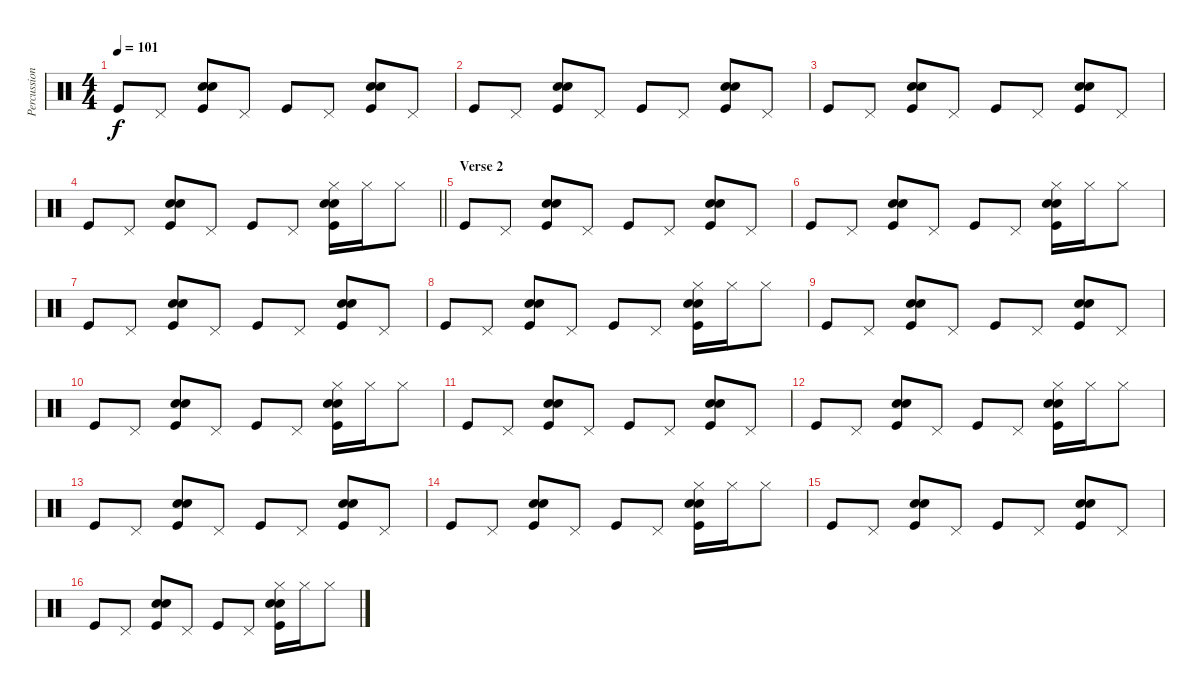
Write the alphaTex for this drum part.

\track ("Percussion" "Percussion") {instrument percussion}
\staff {score}
\articulation defaults
\ts (4 4)
\tempo 101
\clef neutral
\ks c "Kick (hit)".8{dy f} "Pedal Hi-Hat (hit)".8
("Kick (hit)" "Snare (hit) 2" "Electric Snare (hit)").8 "Pedal Hi-Hat (hit)".8 "Kick (hit)".8 "Pedal Hi-Hat (hit)".8 ("Kick (hit)" "Snare (hit) 2" "Electric Snare (hit)").8 "Pedal Hi-Hat (hit)".8 |
"Kick (hit)".8 "Pedal Hi-Hat (hit)".8 ("Kick (hit)" "Snare (hit) 2" "Electric Snare (hit)").8 "Pedal Hi-Hat (hit)".8 "Kick (hit)".8 "Pedal Hi-Hat (hit)".8 ("Kick (hit)" "Snare (hit) 2" "Electric Snare (hit)").8 "Pedal Hi-Hat (hit)".8 |
"Kick (hit)".8 "Pedal Hi-Hat (hit)".8 ("Kick (hit)" "Snare (hit) 2" "Electric Snare (hit)").8 "Pedal Hi-Hat (hit)".8 "Kick (hit)".8 "Pedal Hi-Hat (hit)".8 ("Kick (hit)" "Snare (hit) 2" "Electric Snare (hit)").8 "Pedal Hi-Hat (hit)".8 |
\barLineRight lightlight "Kick (hit)".8 "Pedal Hi-Hat (hit)".8
("Kick (hit)" "Snare (hit) 2" "Electric Snare (hit)").8 "Pedal Hi-Hat (hit)".8 "Kick (hit)".8 "Pedal Hi-Hat (hit)".8 ("Kick (hit)" "Snare (hit) 2" "Electric Snare (hit)" "Hi-Hat (closed)").16 "Hi-Hat (closed)".16 "Hi-Hat (closed)".8 |
\section ("" "Verse 2")
"Kick (hit)".8 "Pedal Hi-Hat (hit)".8 ("Kick (hit)" "Snare (hit) 2" "Electric Snare (hit)").8 "Pedal Hi-Hat (hit)".8 "Kick (hit)".8 "Pedal Hi-Hat (hit)".8 ("Kick (hit)" "Snare (hit) 2" "Electric Snare (hit)").8 "Pedal Hi-Hat (hit)".8 |
"Kick (hit)".8 "Pedal Hi-Hat (hit)".8 ("Kick (hit)" "Snare (hit) 2" "Electric Snare (hit)").8 "Pedal Hi-Hat (hit)".8 "Kick (hit)".8 "Pedal Hi-Hat (hit)".8 ("Kick (hit)" "Snare (hit) 2" "Electric Snare (hit)" "Hi-Hat (closed)").16 "Hi-Hat (closed)".16 "Hi-Hat (closed)".8 |
"Kick (hit)".8 "Pedal Hi-Hat (hit)".8 ("Kick (hit)" "Snare (hit) 2" "Electric Snare (hit)").8 "Pedal Hi-Hat (hit)".8 "Kick (hit)".8 "Pedal Hi-Hat (hit)".8 ("Kick (hit)" "Snare (hit) 2" "Electric Snare (hit)").8 "Pedal Hi-Hat (hit)".8 |
"Kick (hit)".8 "Pedal Hi-Hat (hit)".8 ("Kick (hit)" "Snare (hit) 2" "Electric Snare (hit)").8 "Pedal Hi-Hat (hit)".8 "Kick (hit)".8 "Pedal Hi-Hat (hit)".8 ("Kick (hit)" "Snare (hit) 2" "Electric Snare (hit)" "Hi-Hat (closed)").16 "Hi-Hat (closed)".16 "Hi-Hat (closed)".8 |
"Kick (hit)".8 "Pedal Hi-Hat (hit)".8 ("Kick (hit)" "Snare (hit) 2" "Electric Snare (hit)").8 "Pedal Hi-Hat (hit)".8 "Kick (hit)".8 "Pedal Hi-Hat (hit)".8 ("Kick (hit)" "Snare (hit) 2" "Electric Snare (hit)").8 "Pedal Hi-Hat (hit)".8 |
"Kick (hit)".8 "Pedal Hi-Hat (hit)".8 ("Kick (hit)" "Snare (hit) 2" "Electric Snare (hit)").8 "Pedal Hi-Hat (hit)".8 "Kick (hit)".8 "Pedal Hi-Hat (hit)".8 ("Kick (hit)" "Snare (hit) 2" "Electric Snare (hit)" "Hi-Hat (closed)").16 "Hi-Hat (closed)".16 "Hi-Hat (closed)".8 |
"Kick (hit)".8 "Pedal Hi-Hat (hit)".8 ("Kick (hit)" "Snare (hit) 2" "Electric Snare (hit)").8 "Pedal Hi-Hat (hit)".8 "Kick (hit)".8 "Pedal Hi-Hat (hit)".8 ("Kick (hit)" "Snare (hit) 2" "Electric Snare (hit)").8 "Pedal Hi-Hat (hit)".8 |
"Kick (hit)".8 "Pedal Hi-Hat (hit)".8 ("Kick (hit)" "Snare (hit) 2" "Electric Snare (hit)").8 "Pedal Hi-Hat (hit)".8 "Kick (hit)".8 "Pedal Hi-Hat (hit)".8 ("Kick (hit)" "Snare (hit) 2" "Electric Snare (hit)" "Hi-Hat (closed)").16 "Hi-Hat (closed)".16 "Hi-Hat (closed)".8 |
"Kick (hit)".8 "Pedal Hi-Hat (hit)".8 ("Kick (hit)" "Snare (hit) 2" "Electric Snare (hit)").8 "Pedal Hi-Hat (hit)".8 "Kick (hit)".8 "Pedal Hi-Hat (hit)".8 ("Kick (hit)" "Snare (hit) 2" "Electric Snare (hit)").8 "Pedal Hi-Hat (hit)".8 |
"Kick (hit)".8 "Pedal Hi-Hat (hit)".8 ("Kick (hit)" "Snare (hit) 2" "Electric Snare (hit)").8 "Pedal Hi-Hat (hit)".8 "Kick (hit)".8 "Pedal Hi-Hat (hit)".8 ("Kick (hit)" "Snare (hit) 2" "Electric Snare (hit)" "Hi-Hat (closed)").16 "Hi-Hat (closed)".16 "Hi-Hat (closed)".8 |
"Kick (hit)".8 "Pedal Hi-Hat (hit)".8 ("Kick (hit)" "Snare (hit) 2" "Electric Snare (hit)").8 "Pedal Hi-Hat (hit)".8 "Kick (hit)".8 "Pedal Hi-Hat (hit)".8 ("Kick (hit)" "Snare (hit) 2" "Electric Snare (hit)").8 "Pedal Hi-Hat (hit)".8 |
"Kick (hit)".8 "Pedal Hi-Hat (hit)".8 ("Kick (hit)" "Snare (hit) 2" "Electric Snare (hit)").8 "Pedal Hi-Hat (hit)".8 "Kick (hit)".8 "Pedal Hi-Hat (hit)".8 ("Kick (hit)" "Snare (hit) 2" "Electric Snare (hit)" "Hi-Hat (closed)").16 "Hi-Hat (closed)".16 "Hi-Hat (closed)".8
